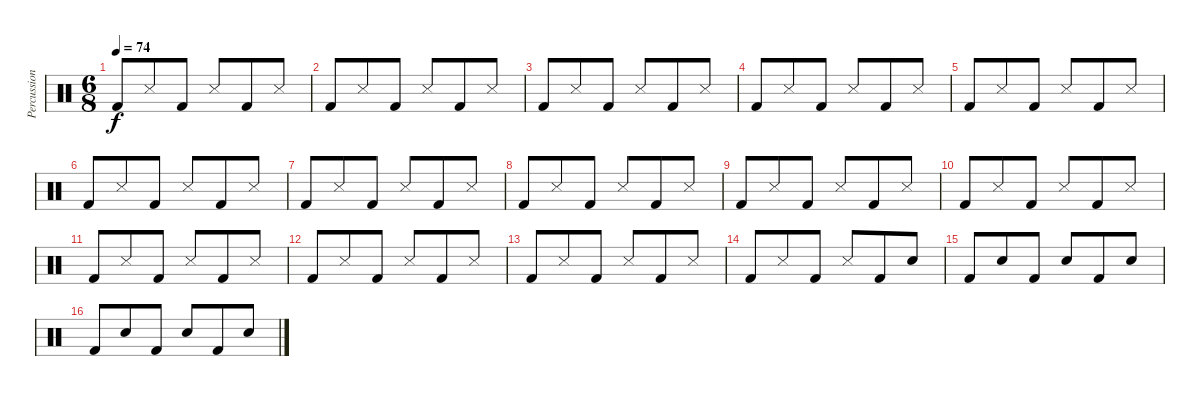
\track ("Percussion" "Percussion") {instrument percussion}
\staff {score}
\articulation defaults
\ts (6 8)
\tempo 74
\clef neutral
\ks c "Kick (hit) 2".8{dy f} "Snare (side stick) 3".8 "Kick (hit) 2".8 "Snare (side stick) 3".8 "Kick (hit) 2".8 "Snare (side stick) 3".8
|
"Kick (hit) 2".8 "Snare (side stick) 3".8 "Kick (hit) 2".8 "Snare (side stick) 3".8 "Kick (hit) 2".8 "Snare (side stick) 3".8 |
"Kick (hit) 2".8 "Snare (side stick) 3".8 "Kick (hit) 2".8 "Snare (side stick) 3".8 "Kick (hit) 2".8 "Snare (side stick) 3".8 |
"Kick (hit) 2".8 "Snare (side stick) 3".8 "Kick (hit) 2".8 "Snare (side stick) 3".8 "Kick (hit) 2".8 "Snare (side stick) 3".8 |
"Kick (hit) 2".8 "Snare (side stick) 3".8 "Kick (hit) 2".8 "Snare (side stick) 3".8 "Kick (hit) 2".8 "Snare (side stick) 3".8 |
"Kick (hit) 2".8 "Snare (side stick) 3".8 "Kick (hit) 2".8 "Snare (side stick) 3".8 "Kick (hit) 2".8 "Snare (side stick) 3".8 |
"Kick (hit) 2".8 "Snare (side stick) 3".8 "Kick (hit) 2".8 "Snare (side stick) 3".8 "Kick (hit) 2".8 "Snare (side stick) 3".8 |
"Kick (hit) 2".8 "Snare (side stick) 3".8 "Kick (hit) 2".8 "Snare (side stick) 3".8 "Kick (hit) 2".8 "Snare (side stick) 3".8 |
"Kick (hit) 2".8 "Snare (side stick) 3".8 "Kick (hit) 2".8 "Snare (side stick) 3".8 "Kick (hit) 2".8 "Snare (side stick) 3".8 |
"Kick (hit) 2".8 "Snare (side stick) 3".8 "Kick (hit) 2".8 "Snare (side stick) 3".8 "Kick (hit) 2".8 "Snare (side stick) 3".8 |
"Kick (hit) 2".8 "Snare (side stick) 3".8 "Kick (hit) 2".8 "Snare (side stick) 3".8 "Kick (hit) 2".8 "Snare (side stick) 3".8 |
"Kick (hit) 2".8 "Snare (side stick) 3".8 "Kick (hit) 2".8 "Snare (side stick) 3".8 "Kick (hit) 2".8 "Snare (side stick) 3".8 |
"Kick (hit) 2".8 "Snare (side stick) 3".8 "Kick (hit) 2".8 "Snare (side stick) 3".8 "Kick (hit) 2".8 "Snare (side stick) 3".8 |
"Kick (hit) 2".8 "Snare (side stick) 3".8 "Kick (hit) 2".8 "Snare (side stick) 3".8 "Kick (hit) 2".8 "Snare (hit) 2".8 |
"Kick (hit) 2".8 "Snare (hit) 2".8 "Kick (hit) 2".8 "Snare (hit) 2".8 "Kick (hit) 2".8 "Snare (hit) 2".8 |
"Kick (hit) 2".8 "Snare (hit) 2".8 "Kick (hit) 2".8 "Snare (hit) 2".8 "Kick (hit) 2".8 "Snare (hit) 2".8
